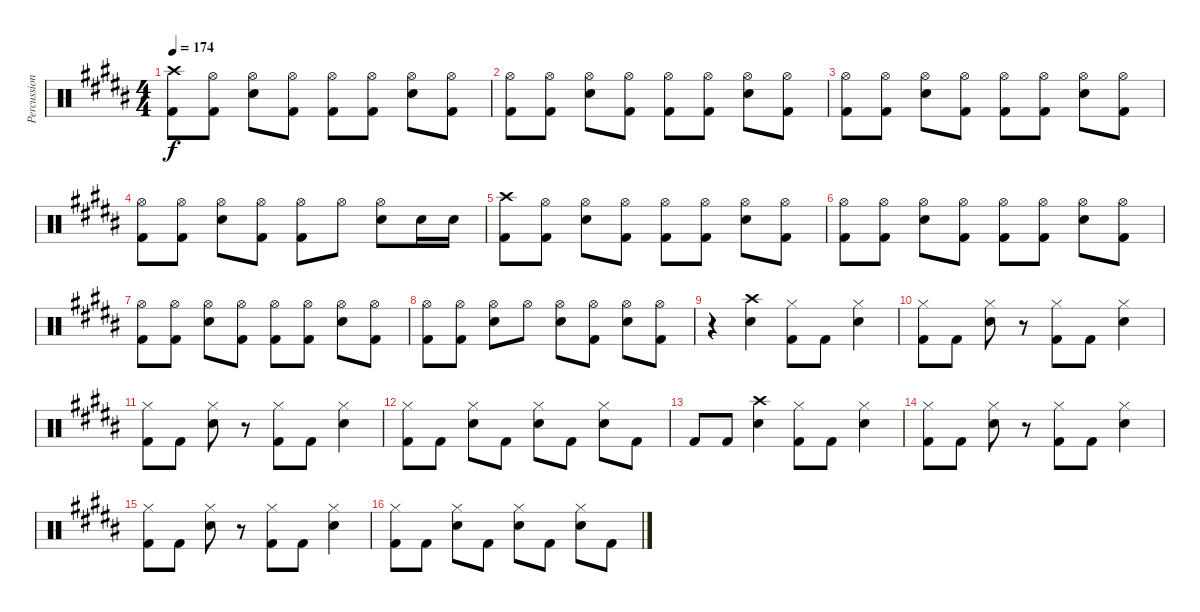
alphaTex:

\track ("Percussion" "Percussion") {instrument percussion}
\staff {score}
\articulation defaults
\ts (4 4)
\tempo 174
\clef neutral
\ks b
("Crash high (hit)" "Kick (hit) 2").8{dy f} ("Hi-Hat (open)" "Kick (hit) 2").8 ("Hi-Hat (open)" "Electric Snare (hit)").8 ("Hi-Hat (open)" "Kick (hit) 2").8 ("Hi-Hat (open)" "Kick (hit) 2").8 ("Hi-Hat (open)" "Kick (hit) 2").8 ("Hi-Hat (open)" "Electric Snare (hit)").8 ("Hi-Hat (open)" "Kick (hit) 2").8 |
("Hi-Hat (open)" "Kick (hit) 2").8 ("Hi-Hat (open)" "Kick (hit) 2").8 ("Hi-Hat (open)" "Electric Snare (hit)").8 ("Hi-Hat (open)" "Kick (hit) 2").8 ("Hi-Hat (open)" "Kick (hit) 2").8 ("Hi-Hat (open)" "Kick (hit) 2").8 ("Hi-Hat (open)" "Electric Snare (hit)").8 ("Hi-Hat (open)" "Kick (hit) 2").8 |
("Hi-Hat (open)" "Kick (hit) 2").8 ("Hi-Hat (open)" "Kick (hit) 2").8 ("Hi-Hat (open)" "Electric Snare (hit)").8 ("Hi-Hat (open)" "Kick (hit) 2").8 ("Hi-Hat (open)" "Kick (hit) 2").8 ("Hi-Hat (open)" "Kick (hit) 2").8 ("Hi-Hat (open)" "Electric Snare (hit)").8 ("Hi-Hat (open)" "Kick (hit) 2").8 |
("Hi-Hat (open)" "Kick (hit) 2").8 ("Hi-Hat (open)" "Kick (hit) 2").8 ("Hi-Hat (open)" "Electric Snare (hit)").8 ("Hi-Hat (open)" "Kick (hit) 2").8 ("Hi-Hat (open)" "Kick (hit) 2").8 "Hi-Hat (open)".8 ("Hi-Hat (open)" "Electric Snare (hit)").8 "Electric Snare (hit)".16 "Electric Snare (hit)".16 |
("Crash high (hit)" "Kick (hit) 2").8 ("Hi-Hat (open)" "Kick (hit) 2").8 ("Hi-Hat (open)" "Electric Snare (hit)").8 ("Hi-Hat (open)" "Kick (hit) 2").8 ("Hi-Hat (open)" "Kick (hit) 2").8 ("Hi-Hat (open)" "Kick (hit) 2").8 ("Hi-Hat (open)" "Electric Snare (hit)").8 ("Hi-Hat (open)" "Kick (hit) 2").8 |
("Hi-Hat (open)" "Kick (hit) 2").8 ("Hi-Hat (open)" "Kick (hit) 2").8 ("Hi-Hat (open)" "Electric Snare (hit)").8 ("Hi-Hat (open)" "Kick (hit) 2").8 ("Hi-Hat (open)" "Kick (hit) 2").8 ("Hi-Hat (open)" "Kick (hit) 2").8 ("Hi-Hat (open)" "Electric Snare (hit)").8 ("Hi-Hat (open)" "Kick (hit) 2").8 |
("Hi-Hat (open)" "Kick (hit) 2").8 ("Hi-Hat (open)" "Kick (hit) 2").8 ("Hi-Hat (open)" "Electric Snare (hit)").8 ("Hi-Hat (open)" "Kick (hit) 2").8 ("Hi-Hat (open)" "Kick (hit) 2").8 ("Hi-Hat (open)" "Kick (hit) 2").8 ("Hi-Hat (open)" "Electric Snare (hit)").8 ("Hi-Hat (open)" "Kick (hit) 2").8 |
("Hi-Hat (open)" "Kick (hit) 2").8 ("Hi-Hat (open)" "Kick (hit) 2").8 ("Hi-Hat (open)" "Electric Snare (hit)").8 "Hi-Hat (open)".8 ("Hi-Hat (open)" "Electric Snare (hit)").8 ("Hi-Hat (open)" "Kick (hit) 2").8 ("Hi-Hat (open)" "Electric Snare (hit)").8 ("Hi-Hat (open)" "Kick (hit) 2").8 |
r.4 ("Crash high (hit)" "Electric Snare (hit)").4 ("Hi-Hat (closed)" "Kick (hit) 2").8 "Kick (hit) 2".8 ("Hi-Hat (closed)" "Electric Snare (hit)").4 |
("Hi-Hat (closed)" "Kick (hit) 2").8 "Kick (hit) 2".8 ("Hi-Hat (closed)" "Electric Snare (hit)").8 r.8 ("Hi-Hat (closed)" "Kick (hit) 2").8 "Kick (hit) 2".8 ("Hi-Hat (closed)" "Electric Snare (hit)").4 |
("Hi-Hat (closed)" "Kick (hit) 2").8 "Kick (hit) 2".8 ("Hi-Hat (closed)" "Electric Snare (hit)").8 r.8 ("Hi-Hat (closed)" "Kick (hit) 2").8 "Kick (hit) 2".8 ("Hi-Hat (closed)" "Electric Snare (hit)").4 |
("Hi-Hat (closed)" "Kick (hit) 2").8 "Kick (hit) 2".8 ("Hi-Hat (closed)" "Electric Snare (hit)").8 "Kick (hit) 2".8 ("Hi-Hat (closed)" "Electric Snare (hit)").8 "Kick (hit) 2".8 ("Hi-Hat (closed)" "Electric Snare (hit)").8 "Kick (hit) 2".8 |
"Kick (hit) 2".8 "Kick (hit) 2".8 ("Crash high (hit)" "Electric Snare (hit)").4 ("Hi-Hat (closed)" "Kick (hit) 2").8 "Kick (hit) 2".8 ("Hi-Hat (closed)" "Electric Snare (hit)").4 |
("Hi-Hat (closed)" "Kick (hit) 2").8 "Kick (hit) 2".8 ("Hi-Hat (closed)" "Electric Snare (hit)").8 r.8 ("Hi-Hat (closed)" "Kick (hit) 2").8 "Kick (hit) 2".8 ("Hi-Hat (closed)" "Electric Snare (hit)").4 |
("Hi-Hat (closed)" "Kick (hit) 2").8 "Kick (hit) 2".8 ("Hi-Hat (closed)" "Electric Snare (hit)").8 r.8 ("Hi-Hat (closed)" "Kick (hit) 2").8 "Kick (hit) 2".8 ("Hi-Hat (closed)" "Electric Snare (hit)").4 |
("Hi-Hat (closed)" "Kick (hit) 2").8 "Kick (hit) 2".8 ("Hi-Hat (closed)" "Electric Snare (hit)").8 "Kick (hit) 2".8 ("Hi-Hat (closed)" "Electric Snare (hit)").8 "Kick (hit) 2".8 ("Hi-Hat (closed)" "Electric Snare (hit)").8 "Kick (hit) 2".8
